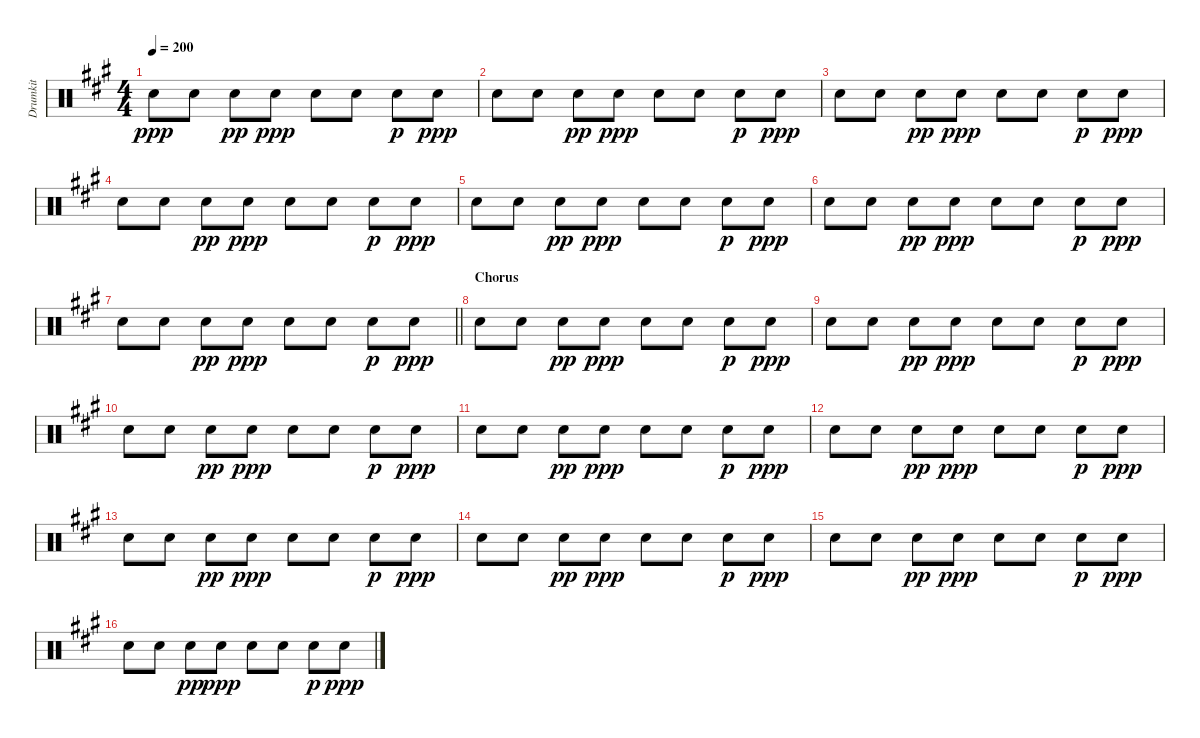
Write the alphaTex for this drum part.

\track ("Drumkit" "Drumkit") {instrument percussion}
\staff {score}
\articulation defaults
\ts (4 4)
\tempo 200
\clef neutral
\ks a "Snare (hit) 2".8{dy ppp} "Snare (hit) 2".8 "Snare (hit) 2".8{dy pp} "Snare (hit) 2".8{dy ppp} "Snare (hit) 2".8 "Snare (hit) 2".8 "Snare (hit) 2".8{dy p} "Snare (hit) 2".8{dy ppp}
|
"Snare (hit) 2".8 "Snare (hit) 2".8 "Snare (hit) 2".8{dy pp} "Snare (hit) 2".8{dy ppp} "Snare (hit) 2".8 "Snare (hit) 2".8 "Snare (hit) 2".8{dy p} "Snare (hit) 2".8{dy ppp} |
"Snare (hit) 2".8 "Snare (hit) 2".8 "Snare (hit) 2".8{dy pp} "Snare (hit) 2".8{dy ppp} "Snare (hit) 2".8 "Snare (hit) 2".8 "Snare (hit) 2".8{dy p} "Snare (hit) 2".8{dy ppp} |
"Snare (hit) 2".8 "Snare (hit) 2".8 "Snare (hit) 2".8{dy pp} "Snare (hit) 2".8{dy ppp} "Snare (hit) 2".8 "Snare (hit) 2".8 "Snare (hit) 2".8{dy p} "Snare (hit) 2".8{dy ppp} |
"Snare (hit) 2".8 "Snare (hit) 2".8 "Snare (hit) 2".8{dy pp} "Snare (hit) 2".8{dy ppp} "Snare (hit) 2".8 "Snare (hit) 2".8 "Snare (hit) 2".8{dy p} "Snare (hit) 2".8{dy ppp} |
"Snare (hit) 2".8 "Snare (hit) 2".8 "Snare (hit) 2".8{dy pp} "Snare (hit) 2".8{dy ppp} "Snare (hit) 2".8 "Snare (hit) 2".8 "Snare (hit) 2".8{dy p} "Snare (hit) 2".8{dy ppp} |
\barLineRight lightlight "Snare (hit) 2".8 "Snare (hit) 2".8 "Snare (hit) 2".8{dy pp} "Snare (hit) 2".8{dy ppp} "Snare (hit) 2".8 "Snare (hit) 2".8 "Snare (hit) 2".8{dy p} "Snare (hit) 2".8{dy ppp}
|
\section ("" "Chorus")
"Snare (hit) 2".8 "Snare (hit) 2".8 "Snare (hit) 2".8{dy pp} "Snare (hit) 2".8{dy ppp} "Snare (hit) 2".8 "Snare (hit) 2".8 "Snare (hit) 2".8{dy p} "Snare (hit) 2".8{dy ppp} |
"Snare (hit) 2".8 "Snare (hit) 2".8 "Snare (hit) 2".8{dy pp} "Snare (hit) 2".8{dy ppp} "Snare (hit) 2".8 "Snare (hit) 2".8 "Snare (hit) 2".8{dy p} "Snare (hit) 2".8{dy ppp} |
"Snare (hit) 2".8 "Snare (hit) 2".8 "Snare (hit) 2".8{dy pp} "Snare (hit) 2".8{dy ppp} "Snare (hit) 2".8 "Snare (hit) 2".8 "Snare (hit) 2".8{dy p} "Snare (hit) 2".8{dy ppp} |
"Snare (hit) 2".8 "Snare (hit) 2".8 "Snare (hit) 2".8{dy pp} "Snare (hit) 2".8{dy ppp} "Snare (hit) 2".8 "Snare (hit) 2".8 "Snare (hit) 2".8{dy p} "Snare (hit) 2".8{dy ppp} |
"Snare (hit) 2".8 "Snare (hit) 2".8 "Snare (hit) 2".8{dy pp} "Snare (hit) 2".8{dy ppp} "Snare (hit) 2".8 "Snare (hit) 2".8 "Snare (hit) 2".8{dy p} "Snare (hit) 2".8{dy ppp} |
"Snare (hit) 2".8 "Snare (hit) 2".8 "Snare (hit) 2".8{dy pp} "Snare (hit) 2".8{dy ppp} "Snare (hit) 2".8 "Snare (hit) 2".8 "Snare (hit) 2".8{dy p} "Snare (hit) 2".8{dy ppp} |
"Snare (hit) 2".8 "Snare (hit) 2".8 "Snare (hit) 2".8{dy pp} "Snare (hit) 2".8{dy ppp} "Snare (hit) 2".8 "Snare (hit) 2".8 "Snare (hit) 2".8{dy p} "Snare (hit) 2".8{dy ppp} |
"Snare (hit) 2".8 "Snare (hit) 2".8 "Snare (hit) 2".8{dy pp} "Snare (hit) 2".8{dy ppp} "Snare (hit) 2".8 "Snare (hit) 2".8 "Snare (hit) 2".8{dy p} "Snare (hit) 2".8{dy ppp} |
"Snare (hit) 2".8 "Snare (hit) 2".8 "Snare (hit) 2".8{dy pp} "Snare (hit) 2".8{dy ppp} "Snare (hit) 2".8 "Snare (hit) 2".8 "Snare (hit) 2".8{dy p} "Snare (hit) 2".8{dy ppp}
